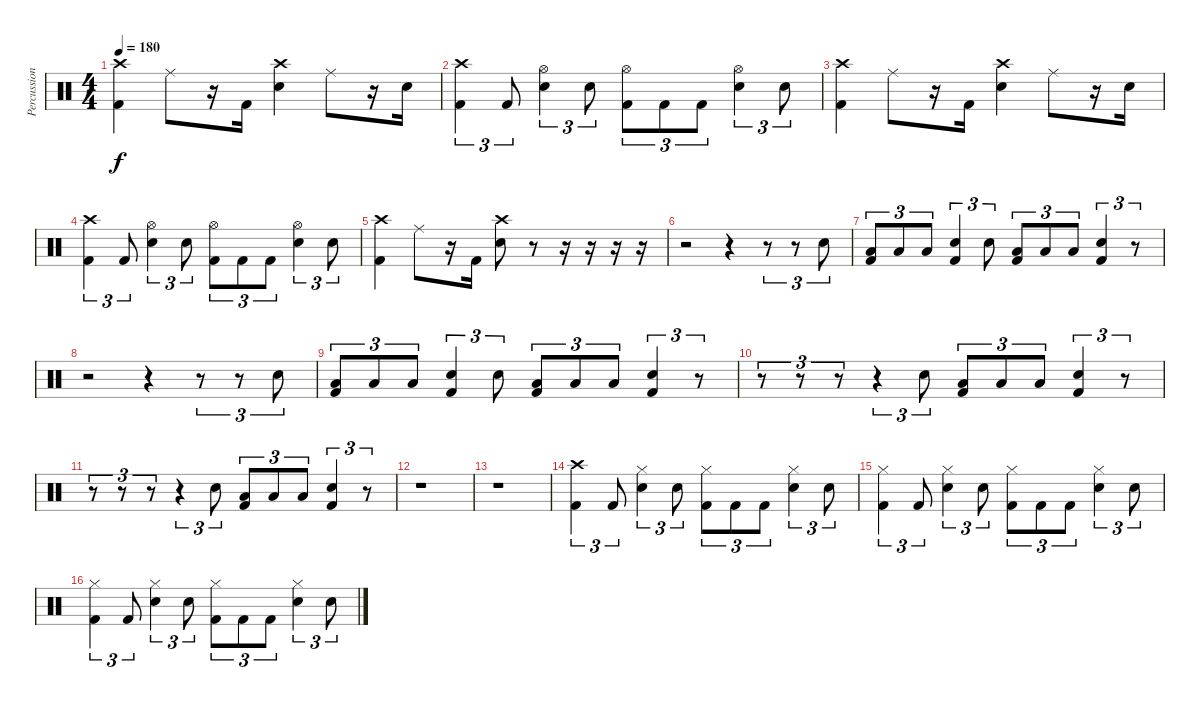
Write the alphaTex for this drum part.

\track ("Percussion" "Percussion") {instrument percussion}
\staff {score}
\articulation defaults
\ts (4 4)
\tempo 180
\clef neutral
\ks c
("Crash high (hit)" "Kick (hit) 2").4{dy f} "Ride (middle)".8 r.16 "Kick (hit) 2".16 ("Crash high (hit)" "Electric Snare (hit)").4 "Ride (middle)".8 r.16 "Electric Snare (hit)".16 |
("Crash high (hit)" "Kick (hit) 2").4{tu (3 2)} "Kick (hit) 2".8{tu (3 2)} ("Hi-Hat (open)" "Electric Snare (hit)").4{tu (3 2)} "Electric Snare (hit)".8{tu (3 2)} ("Hi-Hat (open)" "Kick (hit) 2").8{tu (3 2)} "Kick (hit) 2".8{tu (3 2)} "Kick (hit) 2".8{tu (3 2)} ("Hi-Hat (open)" "Electric Snare (hit)").4{tu (3 2)} "Electric Snare (hit)".8{tu (3 2)} |
("Crash high (hit)" "Kick (hit) 2").4 "Ride (middle)".8 r.16 "Kick (hit) 2".16 ("Crash high (hit)" "Electric Snare (hit)").4 "Ride (middle)".8 r.16 "Electric Snare (hit)".16 |
("Crash high (hit)" "Kick (hit) 2").4{tu (3 2)} "Kick (hit) 2".8{tu (3 2)} ("Hi-Hat (open)" "Electric Snare (hit)").4{tu (3 2)} "Electric Snare (hit)".8{tu (3 2)} ("Hi-Hat (open)" "Kick (hit) 2").8{tu (3 2)} "Kick (hit) 2".8{tu (3 2)} "Kick (hit) 2".8{tu (3 2)} ("Hi-Hat (open)" "Electric Snare (hit)").4{tu (3 2)} "Electric Snare (hit)".8{tu (3 2)} |
("Crash high (hit)" "Kick (hit) 2").4 "Ride (middle)".8 r.16 "Kick (hit) 2".16 ("Crash high (hit)" "Electric Snare (hit)").8 r.8 r.16 r.16 r.16 r.16 |
r.2 r.4 r.8{tu (3 2)} r.8{tu (3 2)} "Electric Snare (hit)".8{tu (3 2)} |
("Low Floor Tom (hit)" "Kick (hit) 2").8{tu (3 2)} "Low Floor Tom (hit)".8{tu (3 2)} "Low Floor Tom (hit)".8{tu (3 2)} ("Electric Snare (hit)" "Kick (hit) 2").4{tu (3 2)} "Electric Snare (hit)".8{tu (3 2)} ("Low Floor Tom (hit)" "Kick (hit) 2").8{tu (3 2)} "Low Floor Tom (hit)".8{tu (3 2)} "Low Floor Tom (hit)".8{tu (3 2)} ("Electric Snare (hit)" "Kick (hit) 2").4{tu (3 2)} r.8{tu (3 2)} |
r.2 r.4 r.8{tu (3 2)} r.8{tu (3 2)} "Electric Snare (hit)".8{tu (3 2)} |
("Low Floor Tom (hit)" "Kick (hit) 2").8{tu (3 2)} "Low Floor Tom (hit)".8{tu (3 2)} "Low Floor Tom (hit)".8{tu (3 2)} ("Electric Snare (hit)" "Kick (hit) 2").4{tu (3 2)} "Electric Snare (hit)".8{tu (3 2)} ("Low Floor Tom (hit)" "Kick (hit) 2").8{tu (3 2)} "Low Floor Tom (hit)".8{tu (3 2)} "Low Floor Tom (hit)".8{tu (3 2)} ("Electric Snare (hit)" "Kick (hit) 2").4{tu (3 2)} r.8{tu (3 2)} |
r.8{tu (3 2)} r.8{tu (3 2)} r.8{tu (3 2)} r.4{tu (3 2)} "Electric Snare (hit)".8{tu (3 2)} ("Low Floor Tom (hit)" "Kick (hit) 2").8{tu (3 2)} "Low Floor Tom (hit)".8{tu (3 2)} "Low Floor Tom (hit)".8{tu (3 2)} ("Electric Snare (hit)" "Kick (hit) 2").4{tu (3 2)} r.8{tu (3 2)} |
r.8{tu (3 2)} r.8{tu (3 2)} r.8{tu (3 2)} r.4{tu (3 2)} "Electric Snare (hit)".8{tu (3 2)} ("Low Floor Tom (hit)" "Kick (hit) 2").8{tu (3 2)} "Low Floor Tom (hit)".8{tu (3 2)} "Low Floor Tom (hit)".8{tu (3 2)} ("Electric Snare (hit)" "Kick (hit) 2").4{tu (3 2)} r.8{tu (3 2)} |
r.1 |
r.1 |
("Crash high (hit)" "Kick (hit) 2").4{tu (3 2)} "Kick (hit) 2".8{tu (3 2)} ("Hi-Hat (closed)" "Electric Snare (hit)").4{tu (3 2)} "Electric Snare (hit)".8{tu (3 2)} ("Hi-Hat (closed)" "Kick (hit) 2").8{tu (3 2)} "Kick (hit) 2".8{tu (3 2)} "Kick (hit) 2".8{tu (3 2)} ("Hi-Hat (closed)" "Electric Snare (hit)").4{tu (3 2)} "Electric Snare (hit)".8{tu (3 2)} |
("Hi-Hat (closed)" "Kick (hit) 2").4{tu (3 2)} "Kick (hit) 2".8{tu (3 2)} ("Hi-Hat (closed)" "Electric Snare (hit)").4{tu (3 2)} "Electric Snare (hit)".8{tu (3 2)} ("Hi-Hat (closed)" "Kick (hit) 2").8{tu (3 2)} "Kick (hit) 2".8{tu (3 2)} "Kick (hit) 2".8{tu (3 2)} ("Hi-Hat (closed)" "Electric Snare (hit)").4{tu (3 2)} "Electric Snare (hit)".8{tu (3 2)} |
("Hi-Hat (closed)" "Kick (hit) 2").4{tu (3 2)} "Kick (hit) 2".8{tu (3 2)} ("Hi-Hat (closed)" "Electric Snare (hit)").4{tu (3 2)} "Electric Snare (hit)".8{tu (3 2)} ("Hi-Hat (closed)" "Kick (hit) 2").8{tu (3 2)} "Kick (hit) 2".8{tu (3 2)} "Kick (hit) 2".8{tu (3 2)} ("Hi-Hat (closed)" "Electric Snare (hit)").4{tu (3 2)} "Electric Snare (hit)".8{tu (3 2)}
